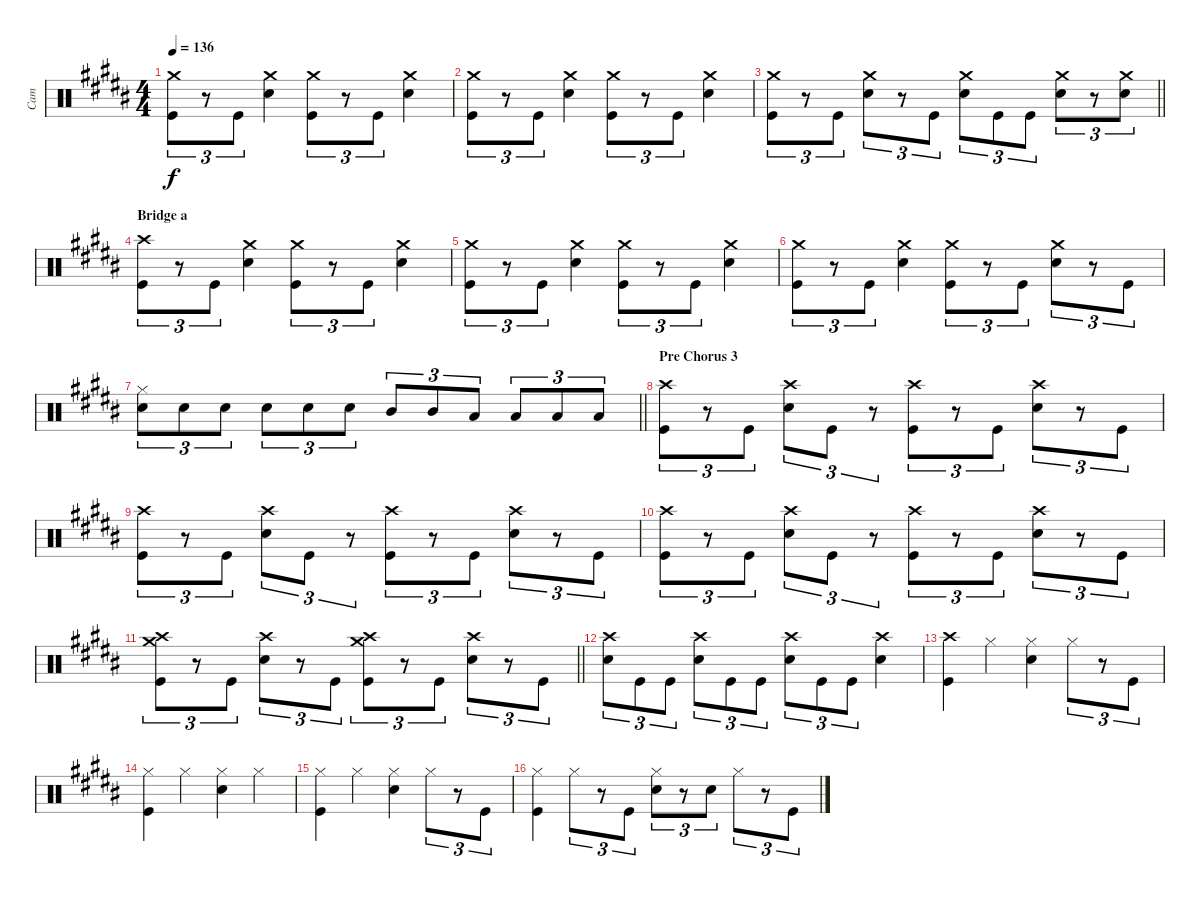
\track ("Cam" "Cam") {instrument percussion}
\staff {score}
\articulation defaults
\ts (4 4)
\tempo 136
\clef neutral
\ks b
("Crash medium (hit)" "Kick (hit)").8{tu (3 2) dy f} r.8{tu (3 2)} "Kick (hit)".8{tu (3 2)} ("Crash medium (hit)" "Snare (hit) 2").4 ("Crash medium (hit)" "Kick (hit)").8{tu (3 2)} r.8{tu (3 2)} "Kick (hit)".8{tu (3 2)} ("Crash medium (hit)" "Snare (hit) 2").4 |
("Crash medium (hit)" "Kick (hit)").8{tu (3 2)} r.8{tu (3 2)} "Kick (hit)".8{tu (3 2)} ("Crash medium (hit)" "Snare (hit) 2").4 ("Crash medium (hit)" "Kick (hit)").8{tu (3 2)} r.8{tu (3 2)} "Kick (hit)".8{tu (3 2)} ("Crash medium (hit)" "Snare (hit) 2").4 |
\barLineRight lightlight
("Crash medium (hit)" "Kick (hit)").8{tu (3 2)} r.8{tu (3 2)} "Kick (hit)".8{tu (3 2)} ("Crash medium (hit)" "Snare (hit) 2").8{tu (3 2)} r.8{tu (3 2)} "Kick (hit)".8{tu (3 2)} ("Crash medium (hit)" "Snare (hit) 2").8{tu (3 2)} "Kick (hit)".8{tu (3 2)} "Kick (hit)".8{tu (3 2)} ("Crash medium (hit)" "Snare (hit) 2").8{tu (3 2)} r.8{tu (3 2)} ("Crash medium (hit)" "Snare (hit) 2").8{tu (3 2)} |
\section ("" "Bridge a")
("Crash high (hit)" "Kick (hit)").8{tu (3 2)} r.8{tu (3 2)} "Kick (hit)".8{tu (3 2)} ("Crash medium (hit)" "Snare (hit) 2").4 ("Crash medium (hit)" "Kick (hit)").8{tu (3 2)} r.8{tu (3 2)} "Kick (hit)".8{tu (3 2)} ("Crash medium (hit)" "Snare (hit) 2").4 |
("Crash medium (hit)" "Kick (hit)").8{tu (3 2)} r.8{tu (3 2)} "Kick (hit)".8{tu (3 2)} ("Crash medium (hit)" "Snare (hit) 2").4 ("Crash medium (hit)" "Kick (hit)").8{tu (3 2)} r.8{tu (3 2)} "Kick (hit)".8{tu (3 2)} ("Crash medium (hit)" "Snare (hit) 2").4 |
("Crash medium (hit)" "Kick (hit)").8{tu (3 2)} r.8{tu (3 2)} "Kick (hit)".8{tu (3 2)} ("Crash medium (hit)" "Snare (hit) 2").4 ("Crash medium (hit)" "Kick (hit)").8{tu (3 2)} r.8{tu (3 2)} "Kick (hit)".8{tu (3 2)} ("Crash medium (hit)" "Snare (hit) 2").8{tu (3 2)} r.8{tu (3 2)} "Kick (hit)".8{tu (3 2)} |
\barLineRight lightlight
("Snare (hit) 2" "Hi-Hat (closed)").8{tu (3 2)} "Snare (hit) 2".8{tu (3 2)} "Snare (hit) 2".8{tu (3 2)} "Snare (hit) 2".8{tu (3 2)} "Snare (hit) 2".8{tu (3 2)} "Snare (hit) 2".8{tu (3 2)} "Mid Tom (hit)".8{tu (3 2)} "Mid Tom (hit)".8{tu (3 2)} "Low Tom (hit)".8{tu (3 2)} "Low Tom (hit)".8{tu (3 2)} "Low Tom (hit)".8{tu (3 2)} "Low Tom (hit)".8{tu (3 2)} |
\section ("" "Pre Chorus 3")
("Crash high (hit)" "Kick (hit)").8{tu (3 2)} r.8{tu (3 2)} "Kick (hit)".8{tu (3 2)} ("Crash high (hit)" "Snare (hit) 2").8{tu (3 2)} "Kick (hit)".8{tu (3 2)} r.8{tu (3 2)} ("Crash high (hit)" "Kick (hit)").8{tu (3 2)} r.8{tu (3 2)} "Kick (hit)".8{tu (3 2)} ("Crash high (hit)" "Snare (hit) 2").8{tu (3 2)} r.8{tu (3 2)} "Kick (hit)".8{tu (3 2)} |
("Crash high (hit)" "Kick (hit)").8{tu (3 2)} r.8{tu (3 2)} "Kick (hit)".8{tu (3 2)} ("Crash high (hit)" "Snare (hit) 2").8{tu (3 2)} "Kick (hit)".8{tu (3 2)} r.8{tu (3 2)} ("Crash high (hit)" "Kick (hit)").8{tu (3 2)} r.8{tu (3 2)} "Kick (hit)".8{tu (3 2)} ("Crash high (hit)" "Snare (hit) 2").8{tu (3 2)} r.8{tu (3 2)} "Kick (hit)".8{tu (3 2)} |
("Crash high (hit)" "Kick (hit)").8{tu (3 2)} r.8{tu (3 2)} "Kick (hit)".8{tu (3 2)} ("Crash high (hit)" "Snare (hit) 2").8{tu (3 2)} "Kick (hit)".8{tu (3 2)} r.8{tu (3 2)} ("Crash high (hit)" "Kick (hit)").8{tu (3 2)} r.8{tu (3 2)} "Kick (hit)".8{tu (3 2)} ("Crash high (hit)" "Snare (hit) 2").8{tu (3 2)} r.8{tu (3 2)} "Kick (hit)".8{tu (3 2)} |
\barLineRight lightlight
("Crash high (hit)" "Crash medium (hit)" "Kick (hit)").8{tu (3 2)} r.8{tu (3 2)} "Kick (hit)".8{tu (3 2)} ("Crash high (hit)" "Snare (hit) 2").8{tu (3 2)} r.8{tu (3 2)} "Kick (hit)".8{tu (3 2)} ("Crash high (hit)" "Crash medium (hit)" "Kick (hit)").8{tu (3 2)} r.8{tu (3 2)} "Kick (hit)".8{tu (3 2)} ("Crash high (hit)" "Snare (hit) 2").8{tu (3 2)} r.8{tu (3 2)} "Kick (hit)".8{tu (3 2)} |
("Crash high (hit)" "Snare (hit) 2").8{tu (3 2)} "Kick (hit)".8{tu (3 2)} "Kick (hit)".8{tu (3 2)} ("Crash high (hit)" "Snare (hit) 2").8{tu (3 2)} "Kick (hit)".8{tu (3 2)} "Kick (hit)".8{tu (3 2)} ("Crash high (hit)" "Snare (hit) 2").8{tu (3 2)} "Kick (hit)".8{tu (3 2)} "Kick (hit)".8{tu (3 2)} ("Crash high (hit)" "Snare (hit) 2").4 |
("Crash high (hit)" "Kick (hit)").4 "Hi-Hat (closed)".4 ("Snare (hit) 2" "Hi-Hat (closed)").4 "Hi-Hat (closed)".8{tu (3 2)} r.8{tu (3 2)} "Kick (hit)".8{tu (3 2)} |
("Hi-Hat (closed)" "Kick (hit)").4 "Hi-Hat (closed)".4 ("Snare (hit) 2" "Hi-Hat (closed)").4 "Hi-Hat (closed)".4 |
("Hi-Hat (closed)" "Kick (hit)").4 "Hi-Hat (closed)".4 ("Snare (hit) 2" "Hi-Hat (closed)").4 "Hi-Hat (closed)".8{tu (3 2)} r.8{tu (3 2)} "Kick (hit)".8{tu (3 2)} |
("Hi-Hat (closed)" "Kick (hit)").4 "Hi-Hat (closed)".8{tu (3 2)} r.8{tu (3 2)} "Kick (hit)".8{tu (3 2)} ("Snare (hit) 2" "Hi-Hat (closed)").8{tu (3 2)} r.8{tu (3 2)} "Snare (hit) 2".8{tu (3 2)} "Hi-Hat (closed)".8{tu (3 2)} r.8{tu (3 2)} "Kick (hit)".8{tu (3 2)}
